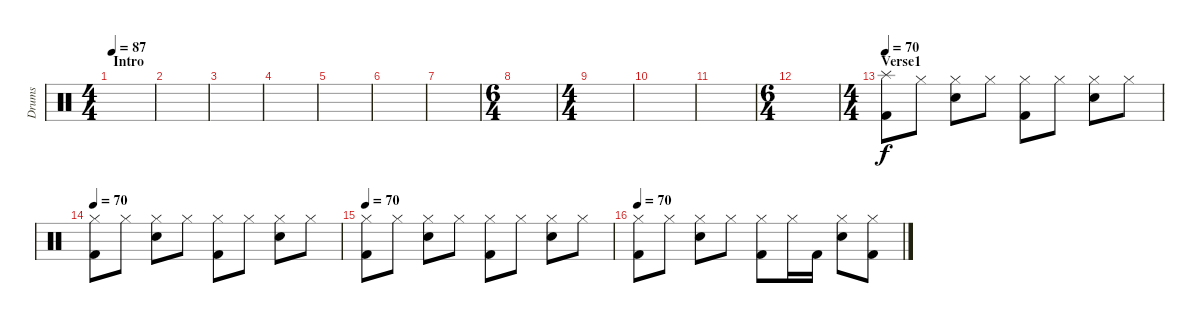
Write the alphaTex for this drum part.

\track ("Drums" "Drums") {instrument percussion}
\staff {score}
\articulation defaults
\ts (4 4)
\section ("" "Intro")
\tempo 87
\clef neutral
\ks c
|
|
|
|
|
|
|
\ts (6 4)
|
\ts (4 4)
|
|
|
\ts (6 4)
|
\ts (4 4)
\section ("" "Verse1")
\tempo 70
("Splash (hit)" "Kick (hit) 2").8 "Hi-Hat (closed)".8 ("Hi-Hat (closed)" "Snare (hit) 2").8 "Hi-Hat (closed)".8 ("Hi-Hat (closed)" "Kick (hit) 2").8 "Hi-Hat (closed)".8 ("Hi-Hat (closed)" "Snare (hit) 2").8 "Hi-Hat (closed)".8 |
\tempo 70
("Hi-Hat (closed)" "Kick (hit) 2").8 "Hi-Hat (closed)".8 ("Hi-Hat (closed)" "Snare (hit) 2").8 "Hi-Hat (closed)".8 ("Hi-Hat (closed)" "Kick (hit) 2").8 "Hi-Hat (closed)".8 ("Hi-Hat (closed)" "Snare (hit) 2").8 "Hi-Hat (closed)".8 |
\tempo 70
("Hi-Hat (closed)" "Kick (hit) 2").8 "Hi-Hat (closed)".8 ("Hi-Hat (closed)" "Snare (hit) 2").8 "Hi-Hat (closed)".8 ("Hi-Hat (closed)" "Kick (hit) 2").8 "Hi-Hat (closed)".8 ("Hi-Hat (closed)" "Snare (hit) 2").8 "Hi-Hat (closed)".8 |
\tempo 70
("Hi-Hat (closed)" "Kick (hit) 2").8 "Hi-Hat (closed)".8 ("Hi-Hat (closed)" "Snare (hit) 2").8 "Hi-Hat (closed)".8 ("Hi-Hat (closed)" "Kick (hit) 2").8 "Hi-Hat (closed)".16 "Kick (hit) 2".16 ("Hi-Hat (closed)" "Snare (hit) 2").8 ("Hi-Hat (closed)" "Kick (hit) 2").8
